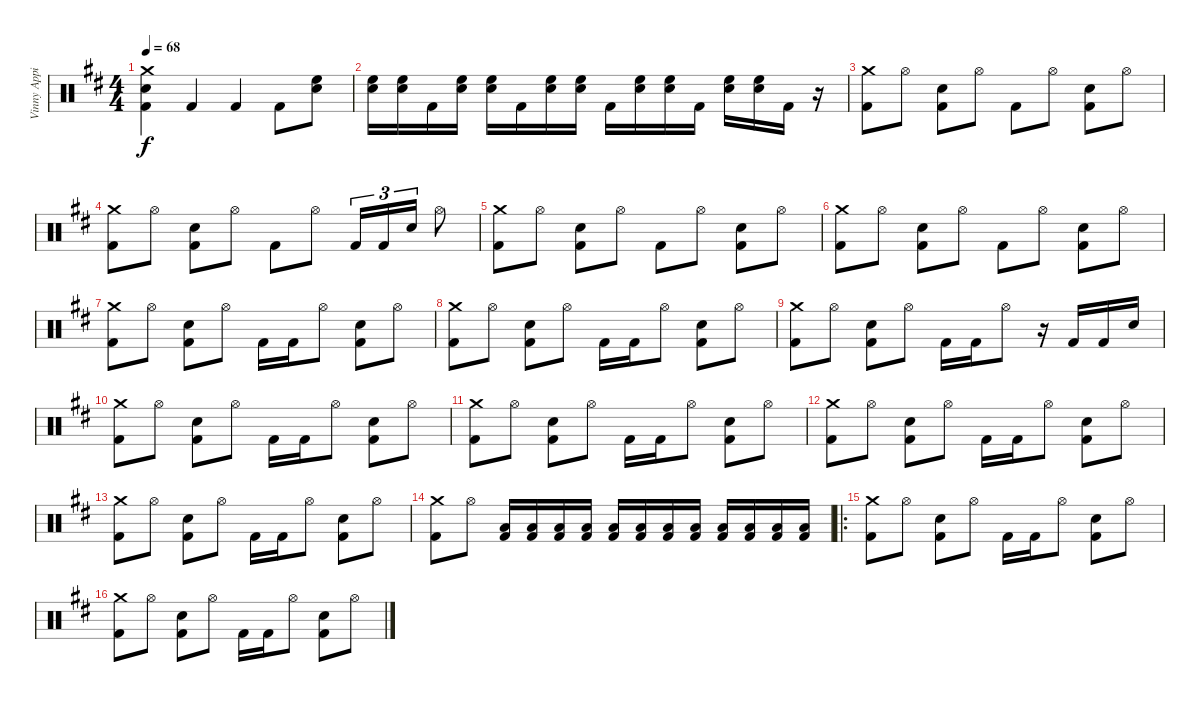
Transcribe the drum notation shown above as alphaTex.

\track ("Vinny Appice" "Vinny Appi") {instrument percussion}
\staff {score}
\articulation defaults
\ts (4 4)
\tempo 68
\clef neutral
\ks d
("Crash medium (hit)" "Snare (hit) 2" "Kick (hit) 2").4{dy f} "Kick (hit) 2".4 "Kick (hit) 2".4 "Kick (hit) 2".8 ("High Floor Tom (hit)" "Snare (hit) 2").8 |
("High Floor Tom (hit)" "Snare (hit) 2").16 ("High Floor Tom (hit)" "Snare (hit) 2").16 "Kick (hit) 2".16 ("High Floor Tom (hit)" "Snare (hit) 2").16 ("High Floor Tom (hit)" "Snare (hit) 2").16 "Kick (hit) 2".16 ("High Floor Tom (hit)" "Snare (hit) 2").16 ("High Floor Tom (hit)" "Snare (hit) 2").16 "Kick (hit) 2".16 ("High Floor Tom (hit)" "Snare (hit) 2").16 ("High Floor Tom (hit)" "Snare (hit) 2").16 "Kick (hit) 2".16 ("High Floor Tom (hit)" "Snare (hit) 2").16 ("High Floor Tom (hit)" "Snare (hit) 2").16 "Kick (hit) 2".16 r.16 |
("Crash medium (hit)" "Kick (hit) 2").8 "Hi-Hat (open)".8 ("Snare (hit) 2" "Kick (hit) 2").8 "Hi-Hat (open)".8 "Kick (hit) 2".8 "Hi-Hat (open)".8 ("Snare (hit) 2" "Kick (hit) 2").8 "Hi-Hat (open)".8 |
("Crash medium (hit)" "Kick (hit) 2").8 "Hi-Hat (open)".8 ("Snare (hit) 2" "Kick (hit) 2").8 "Hi-Hat (open)".8 "Kick (hit) 2".8 "Hi-Hat (open)".8 "Kick (hit) 2".16{tu (3 2)} "Kick (hit) 2".16{tu (3 2)} "Snare (hit) 2".16{tu (3 2)} "Hi-Hat (open)".8 |
("Crash medium (hit)" "Kick (hit) 2").8 "Hi-Hat (open)".8 ("Snare (hit) 2" "Kick (hit) 2").8 "Hi-Hat (open)".8 "Kick (hit) 2".8 "Hi-Hat (open)".8 ("Snare (hit) 2" "Kick (hit) 2").8 "Hi-Hat (open)".8 |
("Crash medium (hit)" "Kick (hit) 2").8 "Hi-Hat (open)".8 ("Snare (hit) 2" "Kick (hit) 2").8 "Hi-Hat (open)".8 "Kick (hit) 2".8 "Hi-Hat (open)".8 ("Snare (hit) 2" "Kick (hit) 2").8 "Hi-Hat (open)".8 |
("Crash medium (hit)" "Kick (hit) 2").8 "Hi-Hat (open)".8 ("Snare (hit) 2" "Kick (hit) 2").8 "Hi-Hat (open)".8 "Kick (hit) 2".16 "Kick (hit) 2".16 "Hi-Hat (open)".8 ("Snare (hit) 2" "Kick (hit) 2").8 "Hi-Hat (open)".8 |
("Crash medium (hit)" "Kick (hit) 2").8 "Hi-Hat (open)".8 ("Snare (hit) 2" "Kick (hit) 2").8 "Hi-Hat (open)".8 "Kick (hit) 2".16 "Kick (hit) 2".16 "Hi-Hat (open)".8 ("Snare (hit) 2" "Kick (hit) 2").8 "Hi-Hat (open)".8 |
("Crash medium (hit)" "Kick (hit) 2").8 "Hi-Hat (open)".8 ("Snare (hit) 2" "Kick (hit) 2").8 "Hi-Hat (open)".8 "Kick (hit) 2".16 "Kick (hit) 2".16 "Hi-Hat (open)".8 r.16 "Kick (hit) 2".16 "Kick (hit) 2".16 "Snare (hit) 2".16 |
("Crash medium (hit)" "Kick (hit) 2").8 "Hi-Hat (open)".8 ("Snare (hit) 2" "Kick (hit) 2").8 "Hi-Hat (open)".8 "Kick (hit) 2".16 "Kick (hit) 2".16 "Hi-Hat (open)".8 ("Snare (hit) 2" "Kick (hit) 2").8 "Hi-Hat (open)".8 |
("Crash medium (hit)" "Kick (hit) 2").8 "Hi-Hat (open)".8 ("Snare (hit) 2" "Kick (hit) 2").8 "Hi-Hat (open)".8 "Kick (hit) 2".16 "Kick (hit) 2".16 "Hi-Hat (open)".8 ("Snare (hit) 2" "Kick (hit) 2").8 "Hi-Hat (open)".8 |
("Crash medium (hit)" "Kick (hit) 2").8 "Hi-Hat (open)".8 ("Snare (hit) 2" "Kick (hit) 2").8 "Hi-Hat (open)".8 "Kick (hit) 2".16 "Kick (hit) 2".16 "Hi-Hat (open)".8 ("Snare (hit) 2" "Kick (hit) 2").8 "Hi-Hat (open)".8 |
("Crash medium (hit)" "Kick (hit) 2").8 "Hi-Hat (open)".8 ("Snare (hit) 2" "Kick (hit) 2").8 "Hi-Hat (open)".8 "Kick (hit) 2".16 "Kick (hit) 2".16 "Hi-Hat (open)".8 ("Snare (hit) 2" "Kick (hit) 2").8 "Hi-Hat (open)".8 |
("Crash medium (hit)" "Kick (hit) 2").8 "Hi-Hat (open)".8 ("Low Floor Tom (hit)" "Kick (hit) 2").16 ("Low Floor Tom (hit)" "Kick (hit) 2").16 ("Low Floor Tom (hit)" "Kick (hit) 2").16 ("Low Floor Tom (hit)" "Kick (hit) 2").16 ("Low Floor Tom (hit)" "Kick (hit) 2").16 ("Low Floor Tom (hit)" "Kick (hit) 2").16 ("Low Floor Tom (hit)" "Kick (hit) 2").16 ("Low Floor Tom (hit)" "Kick (hit) 2").16 ("Low Floor Tom (hit)" "Kick (hit) 2").16 ("Low Floor Tom (hit)" "Kick (hit) 2").16 ("Low Floor Tom (hit)" "Kick (hit) 2").16 ("Low Floor Tom (hit)" "Kick (hit) 2").16 |
\ro
("Crash medium (hit)" "Kick (hit) 2").8 "Hi-Hat (open)".8 ("Snare (hit) 2" "Kick (hit) 2").8 "Hi-Hat (open)".8 "Kick (hit) 2".16 "Kick (hit) 2".16 "Hi-Hat (open)".8 ("Snare (hit) 2" "Kick (hit) 2").8 "Hi-Hat (open)".8 |
("Crash medium (hit)" "Kick (hit) 2").8 "Hi-Hat (open)".8 ("Snare (hit) 2" "Kick (hit) 2").8 "Hi-Hat (open)".8 "Kick (hit) 2".16 "Kick (hit) 2".16 "Hi-Hat (open)".8 ("Snare (hit) 2" "Kick (hit) 2").8 "Hi-Hat (open)".8
